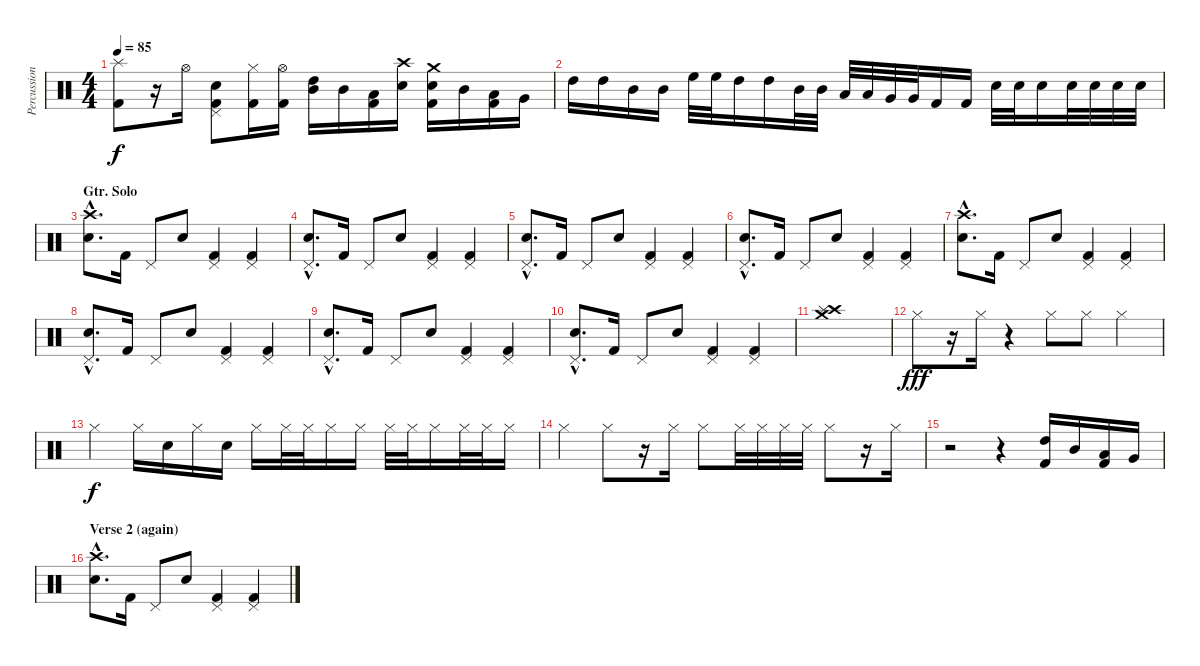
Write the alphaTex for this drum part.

\track ("Percussion" "Percussion") {instrument percussion}
\staff {score}
\articulation defaults
\ts (4 4)
\tempo 85
\clef neutral
\ks c
("Splash (hit)" "Kick (hit) 2").8{dy f} r.16 "Hi-Hat (open)".16 ("Pedal Hi-Hat (hit)" "Electric Snare (hit)" "Kick (hit) 2").8 ("Hi-Hat (closed)" "Kick (hit) 2").16 ("Hi-Hat (open)" "Kick (hit) 2").16 ("Mid Tom (hit)" "High Tom (hit)").16 "Mid Tom (hit)".16 ("Low Tom (hit)" "Kick (hit) 2").16 ("Crash high (hit)" "Electric Snare (hit)").16 ("Crash medium (hit)" "Electric Snare (hit)" "Kick (hit) 2").16 "Mid Tom (hit)".16 ("Low Tom (hit)" "Kick (hit) 2").16 "Very Low Tom (hit)".16 |
"High Tom (hit)".16 "High Tom (hit)".16 "Mid Tom (hit)".16 "Mid Tom (hit)".16 "High Floor Tom (hit)".32 "High Floor Tom (hit)".32 "High Tom (hit)".16 "High Tom (hit)".16 "Mid Tom (hit)".32 "Mid Tom (hit)".32 "Low Tom (hit)".32 "Low Tom (hit)".32 "Very Low Tom (hit)".32 "Very Low Tom (hit)".32 "Kick (hit) 2".16 "Kick (hit) 2".16 "Electric Snare (hit)".32 "Electric Snare (hit)".32 "Electric Snare (hit)".16 "Electric Snare (hit)".32 "Electric Snare (hit)".32 "Electric Snare (hit)".32 "Electric Snare (hit)".32 |
\section ("" "Gtr. Solo")
("Crash high (hit)"{hac} "Electric Snare (hit)"{hac}).8{d} "Kick (hit) 2".16 "Pedal Hi-Hat (hit)".8 "Electric Snare (hit)".8 ("Pedal Hi-Hat (hit)" "Kick (hit) 2").4 ("Pedal Hi-Hat (hit)" "Kick (hit) 2").4 |
("Pedal Hi-Hat (hit)"{hac} "Electric Snare (hit)"{hac}).8{d} "Kick (hit) 2".16 "Pedal Hi-Hat (hit)".8 "Electric Snare (hit)".8 ("Pedal Hi-Hat (hit)" "Kick (hit) 2").4 ("Pedal Hi-Hat (hit)" "Kick (hit) 2").4 |
("Pedal Hi-Hat (hit)"{hac} "Electric Snare (hit)"{hac}).8{d} "Kick (hit) 2".16 "Pedal Hi-Hat (hit)".8 "Electric Snare (hit)".8 ("Pedal Hi-Hat (hit)" "Kick (hit) 2").4 ("Pedal Hi-Hat (hit)" "Kick (hit) 2").4 |
("Pedal Hi-Hat (hit)"{hac} "Electric Snare (hit)"{hac}).8{d} "Kick (hit) 2".16 "Pedal Hi-Hat (hit)".8 "Electric Snare (hit)".8 ("Pedal Hi-Hat (hit)" "Kick (hit) 2").4 ("Pedal Hi-Hat (hit)" "Kick (hit) 2").4 |
("Crash high (hit)"{hac} "Electric Snare (hit)"{hac}).8{d} "Kick (hit) 2".16 "Pedal Hi-Hat (hit)".8 "Electric Snare (hit)".8 ("Pedal Hi-Hat (hit)" "Kick (hit) 2").4 ("Pedal Hi-Hat (hit)" "Kick (hit) 2").4 |
("Pedal Hi-Hat (hit)"{hac} "Electric Snare (hit)"{hac}).8{d} "Kick (hit) 2".16 "Pedal Hi-Hat (hit)".8 "Electric Snare (hit)".8 ("Pedal Hi-Hat (hit)" "Kick (hit) 2").4 ("Pedal Hi-Hat (hit)" "Kick (hit) 2").4 |
("Pedal Hi-Hat (hit)"{hac} "Electric Snare (hit)"{hac}).8{d} "Kick (hit) 2".16 "Pedal Hi-Hat (hit)".8 "Electric Snare (hit)".8 ("Pedal Hi-Hat (hit)" "Kick (hit) 2").4 ("Pedal Hi-Hat (hit)" "Kick (hit) 2").4 |
("Pedal Hi-Hat (hit)"{hac} "Electric Snare (hit)"{hac}).8{d} "Kick (hit) 2".16 "Pedal Hi-Hat (hit)".8 "Electric Snare (hit)".8 ("Pedal Hi-Hat (hit)" "Kick (hit) 2").4 ("Pedal Hi-Hat (hit)" "Kick (hit) 2").4 |
("Crash high (hit)" "Splash (hit)" "Crash medium (hit)").1 |
"Hi-Hat (closed)".8{dy fff} r.16 "Hi-Hat (closed)".16 r.4 "Hi-Hat (closed)".8 "Hi-Hat (closed)".8 "Hi-Hat (closed)".4 |
"Hi-Hat (closed)".4{dy f} "Hi-Hat (closed)".16 "Snare (hit)".16 "Hi-Hat (closed)".16 "Snare (hit)".16 "Hi-Hat (closed)".16 "Hi-Hat (closed)".32 "Hi-Hat (closed)".32 "Hi-Hat (closed)".16 "Hi-Hat (closed)".16 "Hi-Hat (closed)".32 "Hi-Hat (closed)".32 "Hi-Hat (closed)".16 "Hi-Hat (closed)".32 "Hi-Hat (closed)".32 "Hi-Hat (closed)".16 |
"Hi-Hat (closed)".4 "Hi-Hat (closed)".8 r.16 "Hi-Hat (closed)".16 "Hi-Hat (closed)".8 "Hi-Hat (closed)".32 "Hi-Hat (closed)".32 "Hi-Hat (closed)".32 "Hi-Hat (closed)".32 "Hi-Hat (closed)".8 r.16 "Hi-Hat (closed)".16 |
r.2 r.4 ("High Tom (hit)" "Kick (hit) 2").16 "Mid Tom (hit)".16 ("Low Tom (hit)" "Kick (hit) 2").16 "Very Low Tom (hit)".16 |
\section ("" "Verse 2 (again)")
("Crash high (hit)"{hac} "Electric Snare (hit)"{hac}).8{d} "Kick (hit) 2".16 "Pedal Hi-Hat (hit)".8 "Electric Snare (hit)".8 ("Pedal Hi-Hat (hit)" "Kick (hit) 2").4 ("Pedal Hi-Hat (hit)" "Kick (hit) 2").4
